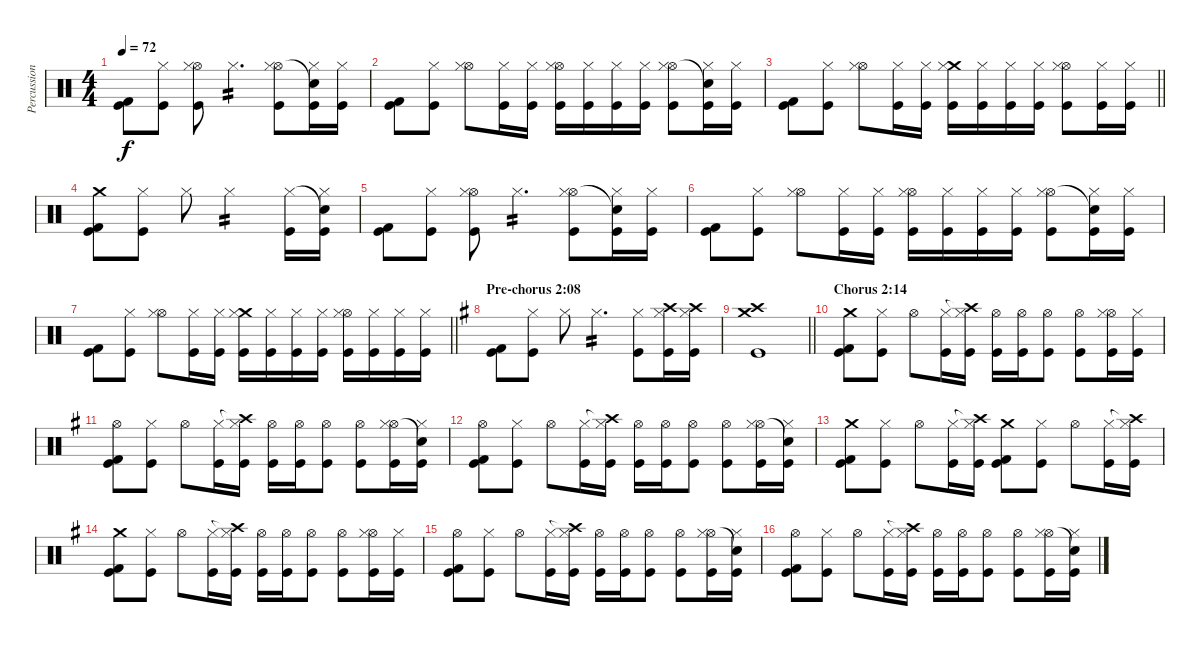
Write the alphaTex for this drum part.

\track ("Percussion" "Percussion") {instrument percussion}
\staff {score}
\articulation defaults
\ts (4 4)
\tempo 72
\clef neutral
\ks c
("Kick (hit) 2" "Kick (hit)").8{dy f} ("Hi-Hat (closed)" "Kick (hit)").8 ("Hi-Hat (open)" "Hi-Hat (closed)" "Kick (hit)").8 "Hi-Hat (closed)".4{d tp 2} ("Hi-Hat (open)" "Hi-Hat (closed)" "Kick (hit)").8 ("Snare (hit)"{t} "Hi-Hat (closed)" "Kick (hit)").16 ("Hi-Hat (closed)" "Kick (hit)").16 |
("Kick (hit) 2" "Kick (hit)").8 ("Hi-Hat (closed)" "Kick (hit)").8 ("Hi-Hat (open)" "Hi-Hat (closed)").8 ("Hi-Hat (closed)" "Kick (hit)").16 ("Hi-Hat (closed)" "Kick (hit)").16 ("Hi-Hat (open)" "Hi-Hat (closed)" "Kick (hit)").16 ("Hi-Hat (closed)" "Kick (hit)").16 ("Hi-Hat (closed)" "Kick (hit)").16 ("Hi-Hat (closed)" "Kick (hit)").16 ("Hi-Hat (open)" "Hi-Hat (closed)" "Kick (hit)").8 ("Snare (hit)"{t} "Hi-Hat (closed)" "Kick (hit)").16 ("Hi-Hat (closed)" "Kick (hit)").16 |
\barLineRight lightlight
("Kick (hit) 2" "Kick (hit)").8 ("Hi-Hat (closed)" "Kick (hit)").8 ("Hi-Hat (open)" "Hi-Hat (closed)").8 ("Hi-Hat (closed)" "Kick (hit)").16 ("Hi-Hat (closed)" "Kick (hit)").16 ("Crash medium (hit)" "Hi-Hat (closed)" "Kick (hit)").16 ("Hi-Hat (closed)" "Kick (hit)").16 ("Hi-Hat (closed)" "Kick (hit)").16 ("Hi-Hat (closed)" "Kick (hit)").16 ("Hi-Hat (open)" "Hi-Hat (closed)" "Kick (hit)").8 ("Hi-Hat (closed)" "Kick (hit)").16 ("Hi-Hat (closed)" "Kick (hit)").16 |
("Crash medium (hit)" "Kick (hit) 2" "Kick (hit)").8 ("Hi-Hat (closed)" "Kick (hit)").8 "Hi-Hat (closed)".8 "Hi-Hat (closed)".2{tp 2} ("Hi-Hat (closed)" "Kick (hit)").16 ("Snare (hit)"{t} "Hi-Hat (closed)" "Kick (hit)").16 |
("Kick (hit) 2" "Kick (hit)").8 ("Hi-Hat (closed)" "Kick (hit)").8 ("Hi-Hat (open)" "Hi-Hat (closed)" "Kick (hit)").8 "Hi-Hat (closed)".4{d tp 2} ("Hi-Hat (open)" "Hi-Hat (closed)" "Kick (hit)").8 ("Snare (hit)"{t} "Hi-Hat (closed)" "Kick (hit)").16 ("Hi-Hat (closed)" "Kick (hit)").16 |
("Kick (hit) 2" "Kick (hit)").8 ("Hi-Hat (closed)" "Kick (hit)").8 ("Hi-Hat (open)" "Hi-Hat (closed)").8 ("Hi-Hat (closed)" "Kick (hit)").16 ("Hi-Hat (closed)" "Kick (hit)").16 ("Hi-Hat (open)" "Hi-Hat (closed)" "Kick (hit)").16 ("Hi-Hat (closed)" "Kick (hit)").16 ("Hi-Hat (closed)" "Kick (hit)").16 ("Hi-Hat (closed)" "Kick (hit)").16 ("Hi-Hat (open)" "Hi-Hat (closed)" "Kick (hit)").8 ("Snare (hit)"{t} "Hi-Hat (closed)" "Kick (hit)").16 ("Hi-Hat (closed)" "Kick (hit)").16 |
\barLineRight lightlight
("Kick (hit) 2" "Kick (hit)").8 ("Hi-Hat (closed)" "Kick (hit)").8 ("Hi-Hat (open)" "Hi-Hat (closed)").8 ("Hi-Hat (closed)" "Kick (hit)").16 ("Hi-Hat (closed)" "Kick (hit)").16 ("Crash medium (hit)" "Hi-Hat (closed)" "Kick (hit)").16 ("Hi-Hat (closed)" "Kick (hit)").16 ("Hi-Hat (closed)" "Kick (hit)").16 ("Hi-Hat (closed)" "Kick (hit)").16 ("Hi-Hat (open)" "Hi-Hat (closed)" "Kick (hit)").16 ("Hi-Hat (closed)" "Kick (hit)").16 ("Hi-Hat (closed)" "Kick (hit)").16 ("Hi-Hat (closed)" "Kick (hit)").16 |
\section ("" "Pre-chorus 2:08")
\ks g
("Kick (hit) 2" "Kick (hit)").8 ("Hi-Hat (closed)" "Kick (hit)").8 "Hi-Hat (closed)".8 "Hi-Hat (closed)".4{d tp 2} ("Hi-Hat (closed)" "Kick (hit)").8 ("Crash high (hit)" "Hi-Hat (closed)" "Kick (hit)").16 ("Crash high (hit)" "Hi-Hat (closed)" "Kick (hit)").16 |
\barLineRight lightlight
("Crash medium (hit)" "Crash high (hit)" "Kick (hit)").1 |
\section ("" "Chorus 2:14")
("Crash medium (hit)" "Kick (hit) 2" "Kick (hit)").8 ("Hi-Hat (closed)" "Kick (hit)").8 "Hi-Hat (open)".8 ("Hi-Hat (closed)" "Kick (hit)").16 ("Crash high (hit)"{t} "Hi-Hat (closed)" "Kick (hit)").16 ("Hi-Hat (open)" "Kick (hit)").16 ("Hi-Hat (open)" "Kick (hit)").16 ("Hi-Hat (open)" "Kick (hit)").8 ("Hi-Hat (open)" "Kick (hit)").8 ("Hi-Hat (open)" "Hi-Hat (closed)" "Kick (hit)").16 ("Hi-Hat (closed)" "Kick (hit)").16 |
("Hi-Hat (open)" "Kick (hit) 2" "Kick (hit)").8 ("Hi-Hat (closed)" "Kick (hit)").8 "Hi-Hat (open)".8 ("Hi-Hat (closed)" "Kick (hit)").16 ("Crash high (hit)"{t} "Hi-Hat (closed)" "Kick (hit)").16 ("Hi-Hat (open)" "Kick (hit)").16 ("Hi-Hat (open)" "Kick (hit)").16 ("Hi-Hat (open)" "Kick (hit)").8 ("Hi-Hat (open)" "Kick (hit)").8 ("Hi-Hat (open)" "Hi-Hat (closed)" "Kick (hit)").16 ("Snare (hit)"{t} "Hi-Hat (closed)" "Kick (hit)").16 |
("Hi-Hat (open)" "Kick (hit) 2" "Kick (hit)").8 ("Hi-Hat (closed)" "Kick (hit)").8 "Hi-Hat (open)".8 ("Hi-Hat (closed)" "Kick (hit)").16 ("Crash high (hit)"{t} "Hi-Hat (closed)" "Kick (hit)").16 ("Hi-Hat (open)" "Kick (hit)").16 ("Hi-Hat (open)" "Kick (hit)").16 ("Hi-Hat (open)" "Kick (hit)").8 ("Hi-Hat (open)" "Kick (hit)").8 ("Hi-Hat (open)" "Hi-Hat (closed)" "Kick (hit)").16 ("Snare (hit)"{t} "Hi-Hat (closed)" "Kick (hit)").16 |
("Crash medium (hit)" "Kick (hit) 2" "Kick (hit)").8 ("Hi-Hat (closed)" "Kick (hit)").8 "Hi-Hat (open)".8 ("Hi-Hat (closed)" "Kick (hit)").16 ("Crash high (hit)"{t} "Hi-Hat (closed)" "Kick (hit)").16 ("Crash medium (hit)" "Kick (hit) 2" "Kick (hit)").8 ("Hi-Hat (closed)" "Kick (hit)").8 "Hi-Hat (open)".8 ("Hi-Hat (closed)" "Kick (hit)").16 ("Crash high (hit)"{t} "Hi-Hat (closed)" "Kick (hit)").16 |
("Crash medium (hit)" "Kick (hit) 2" "Kick (hit)").8 ("Hi-Hat (closed)" "Kick (hit)").8 "Hi-Hat (open)".8 ("Hi-Hat (closed)" "Kick (hit)").16 ("Crash high (hit)"{t} "Hi-Hat (closed)" "Kick (hit)").16 ("Hi-Hat (open)" "Kick (hit)").16 ("Hi-Hat (open)" "Kick (hit)").16 ("Hi-Hat (open)" "Kick (hit)").8 ("Hi-Hat (open)" "Kick (hit)").8 ("Hi-Hat (open)" "Hi-Hat (closed)" "Kick (hit)").16 ("Hi-Hat (closed)" "Kick (hit)").16 |
("Hi-Hat (open)" "Kick (hit) 2" "Kick (hit)").8 ("Hi-Hat (closed)" "Kick (hit)").8 "Hi-Hat (open)".8 ("Hi-Hat (closed)" "Kick (hit)").16 ("Crash high (hit)"{t} "Hi-Hat (closed)" "Kick (hit)").16 ("Hi-Hat (open)" "Kick (hit)").16 ("Hi-Hat (open)" "Kick (hit)").16 ("Hi-Hat (open)" "Kick (hit)").8 ("Hi-Hat (open)" "Kick (hit)").8 ("Hi-Hat (open)" "Hi-Hat (closed)" "Kick (hit)").16 ("Snare (hit)"{t} "Hi-Hat (closed)" "Kick (hit)").16 |
("Hi-Hat (open)" "Kick (hit) 2" "Kick (hit)").8 ("Hi-Hat (closed)" "Kick (hit)").8 "Hi-Hat (open)".8 ("Hi-Hat (closed)" "Kick (hit)").16 ("Crash high (hit)"{t} "Hi-Hat (closed)" "Kick (hit)").16 ("Hi-Hat (open)" "Kick (hit)").16 ("Hi-Hat (open)" "Kick (hit)").16 ("Hi-Hat (open)" "Kick (hit)").8 ("Hi-Hat (open)" "Kick (hit)").8 ("Hi-Hat (open)" "Hi-Hat (closed)" "Kick (hit)").16 ("Snare (hit)"{t} "Hi-Hat (closed)" "Kick (hit)").16
